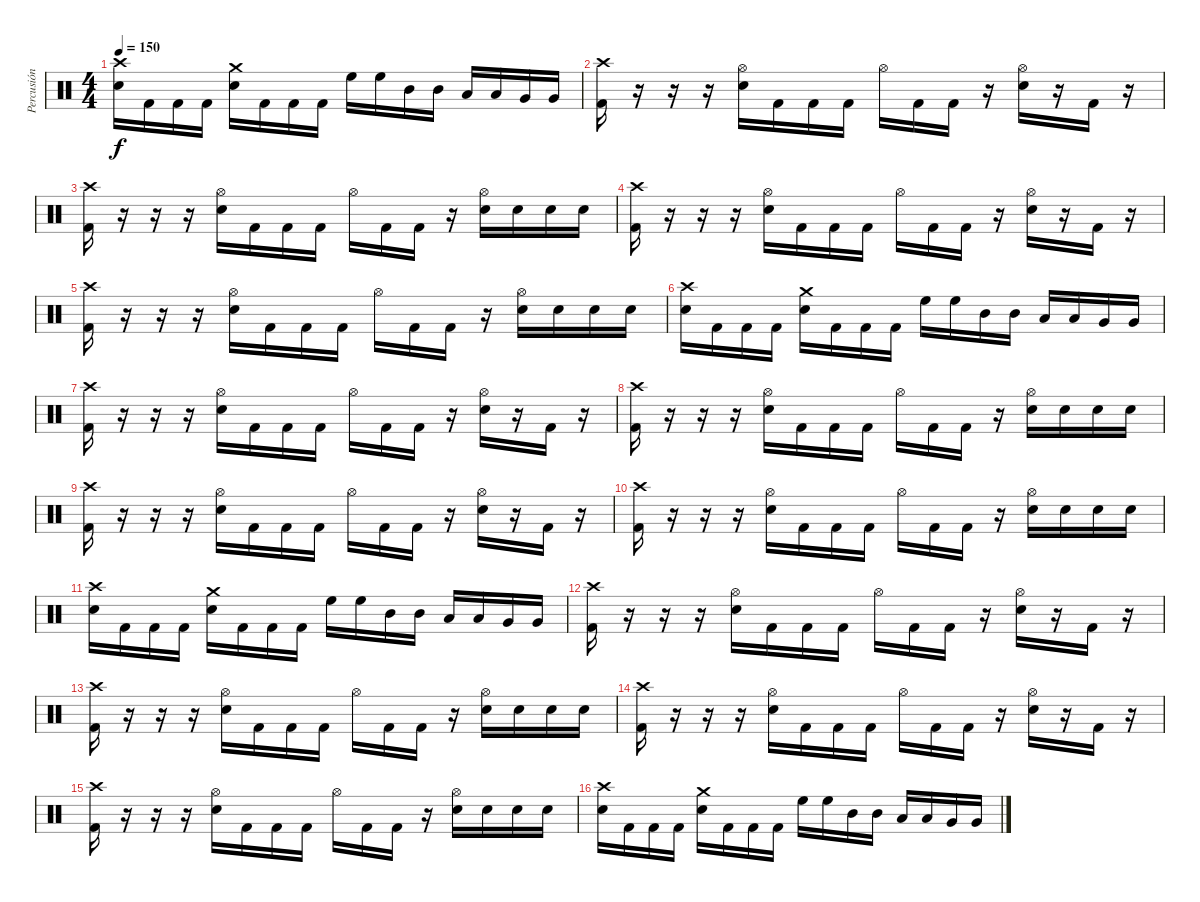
\track ("Percusión" "Percusión") {instrument percussion}
\staff {score}
\articulation defaults
\ts (4 4)
\tempo 150
\clef neutral
\ks c
("Crash high (hit)" "Electric Snare (hit)").16{dy f} "Kick (hit) 2".16 "Kick (hit) 2".16 "Kick (hit) 2".16 ("Crash medium (hit)" "Electric Snare (hit)").16 "Kick (hit) 2".16 "Kick (hit) 2".16 "Kick (hit) 2".16 "High Floor Tom (hit)".16 "High Floor Tom (hit)".16 "Mid Tom (hit)".16 "Mid Tom (hit)".16 "Low Tom (hit)".16 "Low Tom (hit)".16 "Very Low Tom (hit)".16 "Very Low Tom (hit)".16 |
("Crash high (hit)" "Kick (hit) 2").16 r.16 r.16 r.16 ("Hi-Hat (open)" "Electric Snare (hit)").16 "Kick (hit) 2".16 "Kick (hit) 2".16 "Kick (hit) 2".16 "Hi-Hat (open)".16 "Kick (hit) 2".16 "Kick (hit) 2".16 r.16 ("Hi-Hat (open)" "Electric Snare (hit)").16 r.16 "Kick (hit) 2".16 r.16 |
("Crash high (hit)" "Kick (hit) 2").16 r.16 r.16 r.16 ("Hi-Hat (open)" "Electric Snare (hit)").16 "Kick (hit) 2".16 "Kick (hit) 2".16 "Kick (hit) 2".16 "Hi-Hat (open)".16 "Kick (hit) 2".16 "Kick (hit) 2".16 r.16 ("Hi-Hat (open)" "Electric Snare (hit)").16 "Electric Snare (hit)".16 "Electric Snare (hit)".16 "Electric Snare (hit)".16 |
("Crash high (hit)" "Kick (hit) 2").16 r.16 r.16 r.16 ("Hi-Hat (open)" "Electric Snare (hit)").16 "Kick (hit) 2".16 "Kick (hit) 2".16 "Kick (hit) 2".16 "Hi-Hat (open)".16 "Kick (hit) 2".16 "Kick (hit) 2".16 r.16 ("Hi-Hat (open)" "Electric Snare (hit)").16 r.16 "Kick (hit) 2".16 r.16 |
("Crash high (hit)" "Kick (hit) 2").16 r.16 r.16 r.16 ("Hi-Hat (open)" "Electric Snare (hit)").16 "Kick (hit) 2".16 "Kick (hit) 2".16 "Kick (hit) 2".16 "Hi-Hat (open)".16 "Kick (hit) 2".16 "Kick (hit) 2".16 r.16 ("Hi-Hat (open)" "Electric Snare (hit)").16 "Electric Snare (hit)".16 "Electric Snare (hit)".16 "Electric Snare (hit)".16 |
("Crash high (hit)" "Electric Snare (hit)").16 "Kick (hit) 2".16 "Kick (hit) 2".16 "Kick (hit) 2".16 ("Crash medium (hit)" "Electric Snare (hit)").16 "Kick (hit) 2".16 "Kick (hit) 2".16 "Kick (hit) 2".16 "High Floor Tom (hit)".16 "High Floor Tom (hit)".16 "Mid Tom (hit)".16 "Mid Tom (hit)".16 "Low Tom (hit)".16 "Low Tom (hit)".16 "Very Low Tom (hit)".16 "Very Low Tom (hit)".16 |
("Crash high (hit)" "Kick (hit) 2").16 r.16 r.16 r.16 ("Hi-Hat (open)" "Electric Snare (hit)").16 "Kick (hit) 2".16 "Kick (hit) 2".16 "Kick (hit) 2".16 "Hi-Hat (open)".16 "Kick (hit) 2".16 "Kick (hit) 2".16 r.16 ("Hi-Hat (open)" "Electric Snare (hit)").16 r.16 "Kick (hit) 2".16 r.16 |
("Crash high (hit)" "Kick (hit) 2").16 r.16 r.16 r.16 ("Hi-Hat (open)" "Electric Snare (hit)").16 "Kick (hit) 2".16 "Kick (hit) 2".16 "Kick (hit) 2".16 "Hi-Hat (open)".16 "Kick (hit) 2".16 "Kick (hit) 2".16 r.16 ("Hi-Hat (open)" "Electric Snare (hit)").16 "Electric Snare (hit)".16 "Electric Snare (hit)".16 "Electric Snare (hit)".16 |
("Crash high (hit)" "Kick (hit) 2").16 r.16 r.16 r.16 ("Hi-Hat (open)" "Electric Snare (hit)").16 "Kick (hit) 2".16 "Kick (hit) 2".16 "Kick (hit) 2".16 "Hi-Hat (open)".16 "Kick (hit) 2".16 "Kick (hit) 2".16 r.16 ("Hi-Hat (open)" "Electric Snare (hit)").16 r.16 "Kick (hit) 2".16 r.16 |
("Crash high (hit)" "Kick (hit) 2").16 r.16 r.16 r.16 ("Hi-Hat (open)" "Electric Snare (hit)").16 "Kick (hit) 2".16 "Kick (hit) 2".16 "Kick (hit) 2".16 "Hi-Hat (open)".16 "Kick (hit) 2".16 "Kick (hit) 2".16 r.16 ("Hi-Hat (open)" "Electric Snare (hit)").16 "Electric Snare (hit)".16 "Electric Snare (hit)".16 "Electric Snare (hit)".16 |
("Crash high (hit)" "Electric Snare (hit)").16 "Kick (hit) 2".16 "Kick (hit) 2".16 "Kick (hit) 2".16 ("Crash medium (hit)" "Electric Snare (hit)").16 "Kick (hit) 2".16 "Kick (hit) 2".16 "Kick (hit) 2".16 "High Floor Tom (hit)".16 "High Floor Tom (hit)".16 "Mid Tom (hit)".16 "Mid Tom (hit)".16 "Low Tom (hit)".16 "Low Tom (hit)".16 "Very Low Tom (hit)".16 "Very Low Tom (hit)".16 |
("Crash high (hit)" "Kick (hit) 2").16 r.16 r.16 r.16 ("Hi-Hat (open)" "Electric Snare (hit)").16 "Kick (hit) 2".16 "Kick (hit) 2".16 "Kick (hit) 2".16 "Hi-Hat (open)".16 "Kick (hit) 2".16 "Kick (hit) 2".16 r.16 ("Hi-Hat (open)" "Electric Snare (hit)").16 r.16 "Kick (hit) 2".16 r.16 |
("Crash high (hit)" "Kick (hit) 2").16 r.16 r.16 r.16 ("Hi-Hat (open)" "Electric Snare (hit)").16 "Kick (hit) 2".16 "Kick (hit) 2".16 "Kick (hit) 2".16 "Hi-Hat (open)".16 "Kick (hit) 2".16 "Kick (hit) 2".16 r.16 ("Hi-Hat (open)" "Electric Snare (hit)").16 "Electric Snare (hit)".16 "Electric Snare (hit)".16 "Electric Snare (hit)".16 |
("Crash high (hit)" "Kick (hit) 2").16 r.16 r.16 r.16 ("Hi-Hat (open)" "Electric Snare (hit)").16 "Kick (hit) 2".16 "Kick (hit) 2".16 "Kick (hit) 2".16 "Hi-Hat (open)".16 "Kick (hit) 2".16 "Kick (hit) 2".16 r.16 ("Hi-Hat (open)" "Electric Snare (hit)").16 r.16 "Kick (hit) 2".16 r.16 |
("Crash high (hit)" "Kick (hit) 2").16 r.16 r.16 r.16 ("Hi-Hat (open)" "Electric Snare (hit)").16 "Kick (hit) 2".16 "Kick (hit) 2".16 "Kick (hit) 2".16 "Hi-Hat (open)".16 "Kick (hit) 2".16 "Kick (hit) 2".16 r.16 ("Hi-Hat (open)" "Electric Snare (hit)").16 "Electric Snare (hit)".16 "Electric Snare (hit)".16 "Electric Snare (hit)".16 |
("Crash high (hit)" "Electric Snare (hit)").16 "Kick (hit) 2".16 "Kick (hit) 2".16 "Kick (hit) 2".16 ("Crash medium (hit)" "Electric Snare (hit)").16 "Kick (hit) 2".16 "Kick (hit) 2".16 "Kick (hit) 2".16 "High Floor Tom (hit)".16 "High Floor Tom (hit)".16 "Mid Tom (hit)".16 "Mid Tom (hit)".16 "Low Tom (hit)".16 "Low Tom (hit)".16 "Very Low Tom (hit)".16 "Very Low Tom (hit)".16
